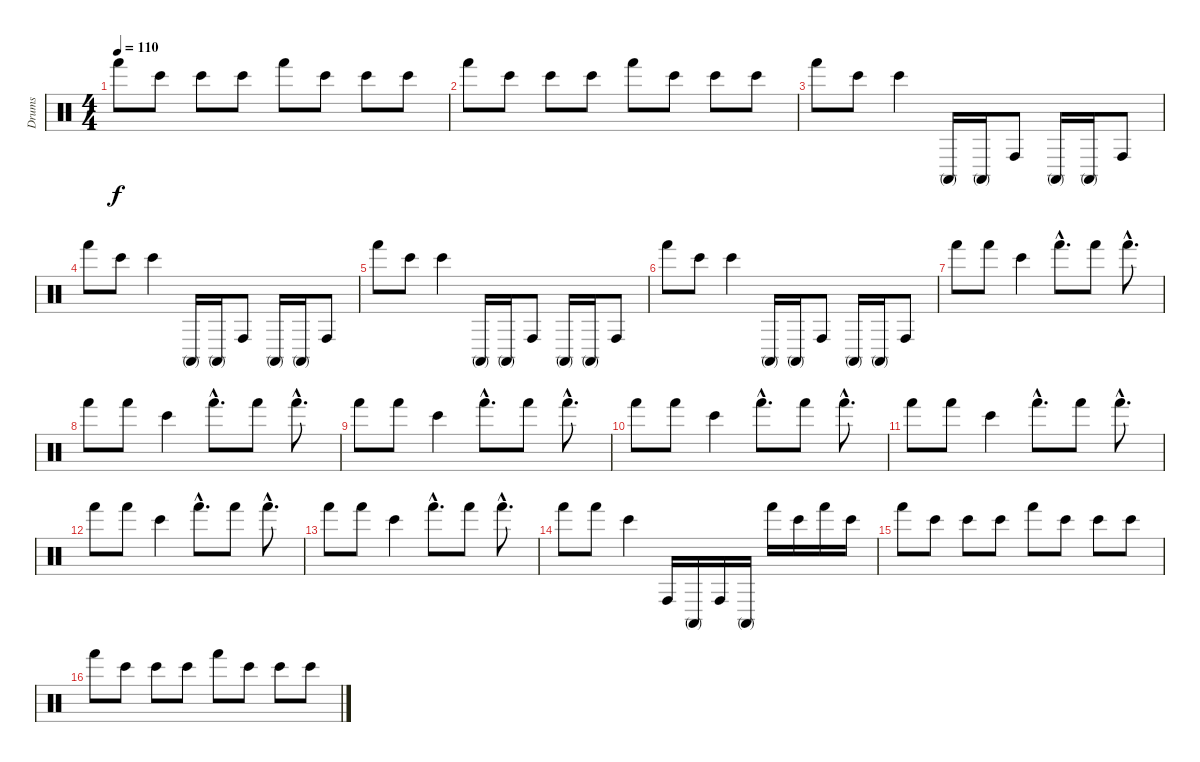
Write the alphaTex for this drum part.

\track ("Drums" "Drums") {instrument percussion}
\staff {score}
\articulation defaults
\ts (4 4)
\tempo 110
\clef neutral
\ks c "Hand (hit)".8{dy f} "Bongo High (hit)".8 "Bongo High (hit)".8 "Bongo High (hit)".8 "Hand (hit)".8 "Bongo High (hit)".8 "Bongo High (hit)".8 "Bongo High (hit)".8
|
"Hand (hit)".8 "Bongo High (hit)".8 "Bongo High (hit)".8 "Bongo High (hit)".8 "Hand (hit)".8 "Bongo High (hit)".8 "Bongo High (hit)".8 "Bongo High (hit)".8 |
"Hand (hit)".8 "Bongo High (hit)".8 "Bongo High (hit)".4 "Conga high (mute)".16 "Conga high (mute)".16 "Conga high (hit)".8 "Conga high (mute)".16 "Conga high (mute)".16 "Conga high (hit)".8 |
"Hand (hit)".8 "Bongo High (hit)".8 "Bongo High (hit)".4 "Conga high (mute)".16 "Conga high (mute)".16 "Conga high (hit)".8 "Conga high (mute)".16 "Conga high (mute)".16 "Conga high (hit)".8 |
"Hand (hit)".8 "Bongo High (hit)".8 "Bongo High (hit)".4 "Conga high (mute)".16 "Conga high (mute)".16 "Conga high (hit)".8 "Conga high (mute)".16 "Conga high (mute)".16 "Conga high (hit)".8 |
"Hand (hit)".8 "Bongo High (hit)".8 "Bongo High (hit)".4 "Conga high (mute)".16 "Conga high (mute)".16 "Conga high (hit)".8 "Conga high (mute)".16 "Conga high (mute)".16 "Conga high (hit)".8 |
"Hand (hit)".8 "Hand (hit)".8 "Bongo High (hit)".4 "Hand (hit)"{hac}.8{d} "Hand (hit)".8 "Hand (hit)"{hac}.8{d} |
"Hand (hit)".8 "Hand (hit)".8 "Bongo High (hit)".4 "Hand (hit)"{hac}.8{d} "Hand (hit)".8 "Hand (hit)"{hac}.8{d} |
"Hand (hit)".8 "Hand (hit)".8 "Bongo High (hit)".4 "Hand (hit)"{hac}.8{d} "Hand (hit)".8 "Hand (hit)"{hac}.8{d} |
"Hand (hit)".8 "Hand (hit)".8 "Bongo High (hit)".4 "Hand (hit)"{hac}.8{d} "Hand (hit)".8 "Hand (hit)"{hac}.8{d} |
"Hand (hit)".8 "Hand (hit)".8 "Bongo High (hit)".4 "Hand (hit)"{hac}.8{d} "Hand (hit)".8 "Hand (hit)"{hac}.8{d} |
"Hand (hit)".8 "Hand (hit)".8 "Bongo High (hit)".4 "Hand (hit)"{hac}.8{d} "Hand (hit)".8 "Hand (hit)"{hac}.8{d} |
"Hand (hit)".8 "Hand (hit)".8 "Bongo High (hit)".4 "Hand (hit)"{hac}.8{d} "Hand (hit)".8 "Hand (hit)"{hac}.8{d} |
"Hand (hit)".8 "Hand (hit)".8 "Bongo High (hit)".4 "Conga high (hit)".16 "Conga high (mute)".16 "Conga high (hit)".16 "Conga high (mute)".16 "Hand (hit)".16 "Bongo High (hit)".16 "Hand (hit)".16 "Bongo High (hit)".16 |
"Hand (hit)".8 "Bongo High (hit)".8 "Bongo High (hit)".8 "Bongo High (hit)".8 "Hand (hit)".8 "Bongo High (hit)".8 "Bongo High (hit)".8 "Bongo High (hit)".8 |
"Hand (hit)".8 "Bongo High (hit)".8 "Bongo High (hit)".8 "Bongo High (hit)".8 "Hand (hit)".8 "Bongo High (hit)".8 "Bongo High (hit)".8 "Bongo High (hit)".8
